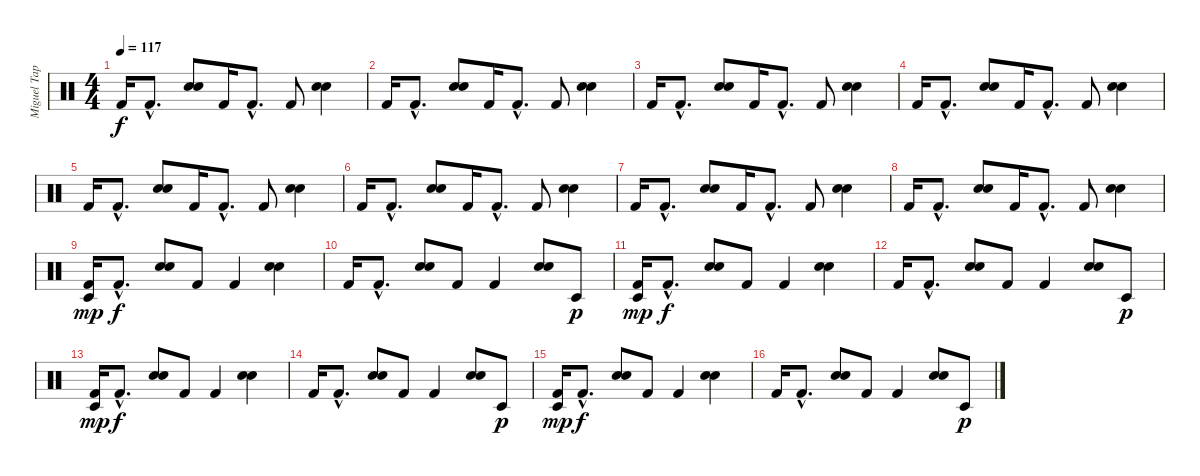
\track ("Miguel Tapia" "Miguel Tap") {instrument percussion}
\staff {score}
\articulation defaults
\ts (4 4)
\tempo 117
\clef neutral
\ks c "Kick (hit) 2".16{dy f} "Kick (hit) 2"{hac}.8{d}
("Snare (hit) 2" "Electric Snare (hit)").8 "Kick (hit) 2".16 "Kick (hit) 2"{hac}.8{d} "Kick (hit) 2".8 ("Snare (hit) 2" "Electric Snare (hit)").4 |
"Kick (hit) 2".16 "Kick (hit) 2"{hac}.8{d} ("Snare (hit) 2" "Electric Snare (hit)").8 "Kick (hit) 2".16 "Kick (hit) 2"{hac}.8{d} "Kick (hit) 2".8 ("Snare (hit) 2" "Electric Snare (hit)").4 |
"Kick (hit) 2".16 "Kick (hit) 2"{hac}.8{d} ("Snare (hit) 2" "Electric Snare (hit)").8 "Kick (hit) 2".16 "Kick (hit) 2"{hac}.8{d} "Kick (hit) 2".8 ("Snare (hit) 2" "Electric Snare (hit)").4 |
"Kick (hit) 2".16 "Kick (hit) 2"{hac}.8{d} ("Snare (hit) 2" "Electric Snare (hit)").8 "Kick (hit) 2".16 "Kick (hit) 2"{hac}.8{d} "Kick (hit) 2".8 ("Snare (hit) 2" "Electric Snare (hit)").4 |
"Kick (hit) 2".16 "Kick (hit) 2"{hac}.8{d} ("Snare (hit) 2" "Electric Snare (hit)").8 "Kick (hit) 2".16 "Kick (hit) 2"{hac}.8{d} "Kick (hit) 2".8 ("Snare (hit) 2" "Electric Snare (hit)").4 |
"Kick (hit) 2".16 "Kick (hit) 2"{hac}.8{d} ("Snare (hit) 2" "Electric Snare (hit)").8 "Kick (hit) 2".16 "Kick (hit) 2"{hac}.8{d} "Kick (hit) 2".8 ("Snare (hit) 2" "Electric Snare (hit)").4 |
"Kick (hit) 2".16 "Kick (hit) 2"{hac}.8{d} ("Snare (hit) 2" "Electric Snare (hit)").8 "Kick (hit) 2".16 "Kick (hit) 2"{hac}.8{d} "Kick (hit) 2".8 ("Snare (hit) 2" "Electric Snare (hit)").4 |
"Kick (hit) 2".16 "Kick (hit) 2"{hac}.8{d} ("Snare (hit) 2" "Electric Snare (hit)").8 "Kick (hit) 2".16 "Kick (hit) 2"{hac}.8{d} "Kick (hit) 2".8 ("Snare (hit) 2" "Electric Snare (hit)").4 |
("Kick (hit) 2" "Timbale low (hit)").16{dy mp} "Kick (hit) 2"{hac}.8{d dy f} ("Snare (hit) 2" "Electric Snare (hit)").8 "Kick (hit) 2".8 "Kick (hit) 2".4 ("Snare (hit) 2" "Electric Snare (hit)").4 |
"Kick (hit) 2".16 "Kick (hit) 2"{hac}.8{d} ("Snare (hit) 2" "Electric Snare (hit)").8 "Kick (hit) 2".8 "Kick (hit) 2".4 ("Snare (hit) 2" "Electric Snare (hit)").8 "Timbale low (hit)".8{dy p} |
("Kick (hit) 2" "Timbale low (hit)").16{dy mp} "Kick (hit) 2"{hac}.8{d dy f} ("Snare (hit) 2" "Electric Snare (hit)").8 "Kick (hit) 2".8 "Kick (hit) 2".4 ("Snare (hit) 2" "Electric Snare (hit)").4 |
"Kick (hit) 2".16 "Kick (hit) 2"{hac}.8{d} ("Snare (hit) 2" "Electric Snare (hit)").8 "Kick (hit) 2".8 "Kick (hit) 2".4 ("Snare (hit) 2" "Electric Snare (hit)").8 "Timbale low (hit)".8{dy p} |
("Kick (hit) 2" "Timbale low (hit)").16{dy mp} "Kick (hit) 2"{hac}.8{d dy f} ("Snare (hit) 2" "Electric Snare (hit)").8 "Kick (hit) 2".8 "Kick (hit) 2".4 ("Snare (hit) 2" "Electric Snare (hit)").4 |
"Kick (hit) 2".16 "Kick (hit) 2"{hac}.8{d} ("Snare (hit) 2" "Electric Snare (hit)").8 "Kick (hit) 2".8 "Kick (hit) 2".4 ("Snare (hit) 2" "Electric Snare (hit)").8 "Timbale low (hit)".8{dy p} |
("Kick (hit) 2" "Timbale low (hit)").16{dy mp} "Kick (hit) 2"{hac}.8{d dy f} ("Snare (hit) 2" "Electric Snare (hit)").8 "Kick (hit) 2".8 "Kick (hit) 2".4 ("Snare (hit) 2" "Electric Snare (hit)").4 |
"Kick (hit) 2".16 "Kick (hit) 2"{hac}.8{d} ("Snare (hit) 2" "Electric Snare (hit)").8 "Kick (hit) 2".8 "Kick (hit) 2".4 ("Snare (hit) 2" "Electric Snare (hit)").8 "Timbale low (hit)".8{dy p}
